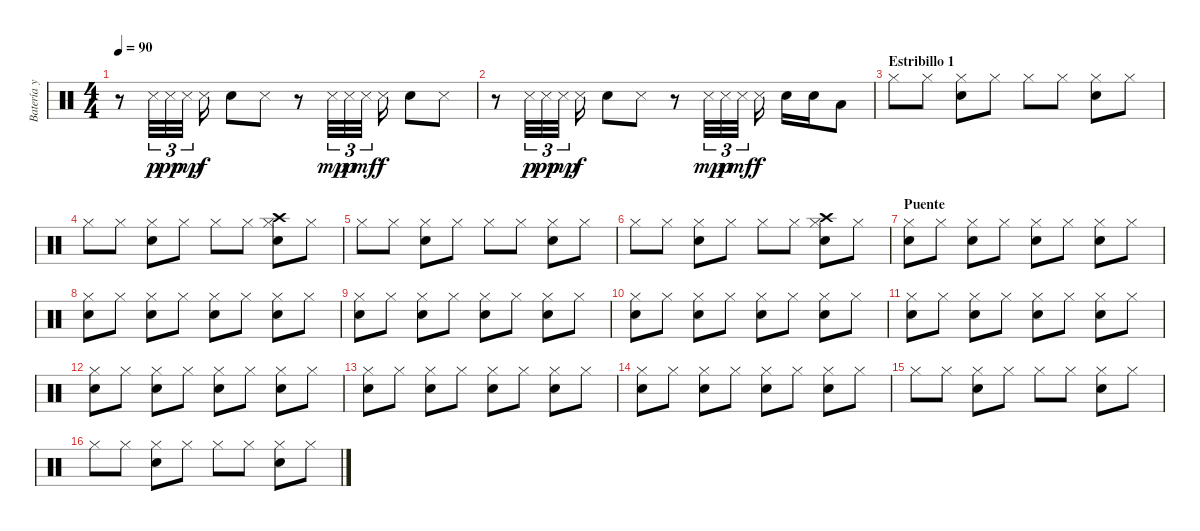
\track ("Batería y risa" "Batería y ") {instrument percussion}
\staff {score}
\articulation defaults
\ts (4 4)
\tempo 90
\clef neutral
\ks c
r.8{dy f} "Snare (side stick) 3".32{tu (3 2) dy p} "Snare (side stick) 3".32{tu (3 2) dy pp} "Snare (side stick) 3".32{tu (3 2) dy mp} "Snare (side stick) 3".16{dy f} "Snare (hit) 2".8 "Snare (side stick) 3".8 r.8 "Snare (side stick) 3".32{tu (3 2) dy mp} "Snare (side stick) 3".32{tu (3 2) dy p} "Snare (side stick) 3".32{tu (3 2) dy mf} "Snare (side stick) 3".16{dy f} "Snare (hit) 2".8 "Snare (side stick) 3".8 |
r.8 "Snare (side stick) 3".32{tu (3 2) dy p} "Snare (side stick) 3".32{tu (3 2) dy pp} "Snare (side stick) 3".32{tu (3 2) dy mp} "Snare (side stick) 3".16{dy f} "Snare (hit) 2".8 "Snare (side stick) 3".8 r.8 "Snare (side stick) 3".32{tu (3 2) dy mp} "Snare (side stick) 3".32{tu (3 2) dy p} "Snare (side stick) 3".32{tu (3 2) dy mf} "Snare (side stick) 3".16{dy f} "Snare (hit) 2".16 "Snare (hit) 2".16 "Low Tom (hit)".8 |
\section ("" "Estribillo 1")
"Hi-Hat (closed)".8 "Hi-Hat (closed)".8 ("Hi-Hat (closed)" "Snare (hit) 2").8 "Hi-Hat (closed)".8 "Hi-Hat (closed)".8 "Hi-Hat (closed)".8 ("Hi-Hat (closed)" "Snare (hit) 2").8 "Hi-Hat (closed)".8 |
"Hi-Hat (closed)".8 "Hi-Hat (closed)".8 ("Hi-Hat (closed)" "Snare (hit) 2").8 "Hi-Hat (closed)".8 "Hi-Hat (closed)".8 "Hi-Hat (closed)".8 ("Hi-Hat (closed)" "Snare (hit) 2" "Crash high (hit)").8 "Hi-Hat (closed)".8 |
"Hi-Hat (closed)".8 "Hi-Hat (closed)".8 ("Hi-Hat (closed)" "Snare (hit) 2").8 "Hi-Hat (closed)".8 "Hi-Hat (closed)".8 "Hi-Hat (closed)".8 ("Hi-Hat (closed)" "Snare (hit) 2").8 "Hi-Hat (closed)".8 |
"Hi-Hat (closed)".8 "Hi-Hat (closed)".8 ("Hi-Hat (closed)" "Snare (hit) 2").8 "Hi-Hat (closed)".8 "Hi-Hat (closed)".8 "Hi-Hat (closed)".8 ("Hi-Hat (closed)" "Snare (hit) 2" "Crash high (hit)").8 "Hi-Hat (closed)".8 |
\section ("" "Puente")
("Hi-Hat (closed)" "Snare (hit) 2").8 "Hi-Hat (closed)".8 ("Hi-Hat (closed)" "Snare (hit) 2").8 "Hi-Hat (closed)".8 ("Hi-Hat (closed)" "Snare (hit) 2").8 "Hi-Hat (closed)".8 ("Hi-Hat (closed)" "Snare (hit) 2").8 "Hi-Hat (closed)".8 |
("Hi-Hat (closed)" "Snare (hit) 2").8 "Hi-Hat (closed)".8 ("Hi-Hat (closed)" "Snare (hit) 2").8 "Hi-Hat (closed)".8 ("Hi-Hat (closed)" "Snare (hit) 2").8 "Hi-Hat (closed)".8 ("Hi-Hat (closed)" "Snare (hit) 2").8 "Hi-Hat (closed)".8 |
("Hi-Hat (closed)" "Snare (hit) 2").8 "Hi-Hat (closed)".8 ("Hi-Hat (closed)" "Snare (hit) 2").8 "Hi-Hat (closed)".8 ("Hi-Hat (closed)" "Snare (hit) 2").8 "Hi-Hat (closed)".8 ("Hi-Hat (closed)" "Snare (hit) 2").8 "Hi-Hat (closed)".8 |
("Hi-Hat (closed)" "Snare (hit) 2").8 "Hi-Hat (closed)".8 ("Hi-Hat (closed)" "Snare (hit) 2").8 "Hi-Hat (closed)".8 ("Hi-Hat (closed)" "Snare (hit) 2").8 "Hi-Hat (closed)".8 ("Hi-Hat (closed)" "Snare (hit) 2").8 "Hi-Hat (closed)".8 |
("Hi-Hat (closed)" "Snare (hit) 2").8 "Hi-Hat (closed)".8 ("Hi-Hat (closed)" "Snare (hit) 2").8 "Hi-Hat (closed)".8 ("Hi-Hat (closed)" "Snare (hit) 2").8 "Hi-Hat (closed)".8 ("Hi-Hat (closed)" "Snare (hit) 2").8 "Hi-Hat (closed)".8 |
("Hi-Hat (closed)" "Snare (hit) 2").8 "Hi-Hat (closed)".8 ("Hi-Hat (closed)" "Snare (hit) 2").8 "Hi-Hat (closed)".8 ("Hi-Hat (closed)" "Snare (hit) 2").8 "Hi-Hat (closed)".8 ("Hi-Hat (closed)" "Snare (hit) 2").8 "Hi-Hat (closed)".8 |
("Hi-Hat (closed)" "Snare (hit) 2").8 "Hi-Hat (closed)".8 ("Hi-Hat (closed)" "Snare (hit) 2").8 "Hi-Hat (closed)".8 ("Hi-Hat (closed)" "Snare (hit) 2").8 "Hi-Hat (closed)".8 ("Hi-Hat (closed)" "Snare (hit) 2").8 "Hi-Hat (closed)".8 |
("Hi-Hat (closed)" "Snare (hit) 2").8 "Hi-Hat (closed)".8 ("Hi-Hat (closed)" "Snare (hit) 2").8 "Hi-Hat (closed)".8 ("Hi-Hat (closed)" "Snare (hit) 2").8 "Hi-Hat (closed)".8 ("Hi-Hat (closed)" "Snare (hit) 2").8 "Hi-Hat (closed)".8 |
"Hi-Hat (closed)".8 "Hi-Hat (closed)".8 ("Hi-Hat (closed)" "Snare (hit) 2").8 "Hi-Hat (closed)".8 "Hi-Hat (closed)".8 "Hi-Hat (closed)".8 ("Hi-Hat (closed)" "Snare (hit) 2").8 "Hi-Hat (closed)".8 |
"Hi-Hat (closed)".8 "Hi-Hat (closed)".8 ("Hi-Hat (closed)" "Snare (hit) 2").8 "Hi-Hat (closed)".8 "Hi-Hat (closed)".8 "Hi-Hat (closed)".8 ("Hi-Hat (closed)" "Snare (hit) 2").8 "Hi-Hat (closed)".8
